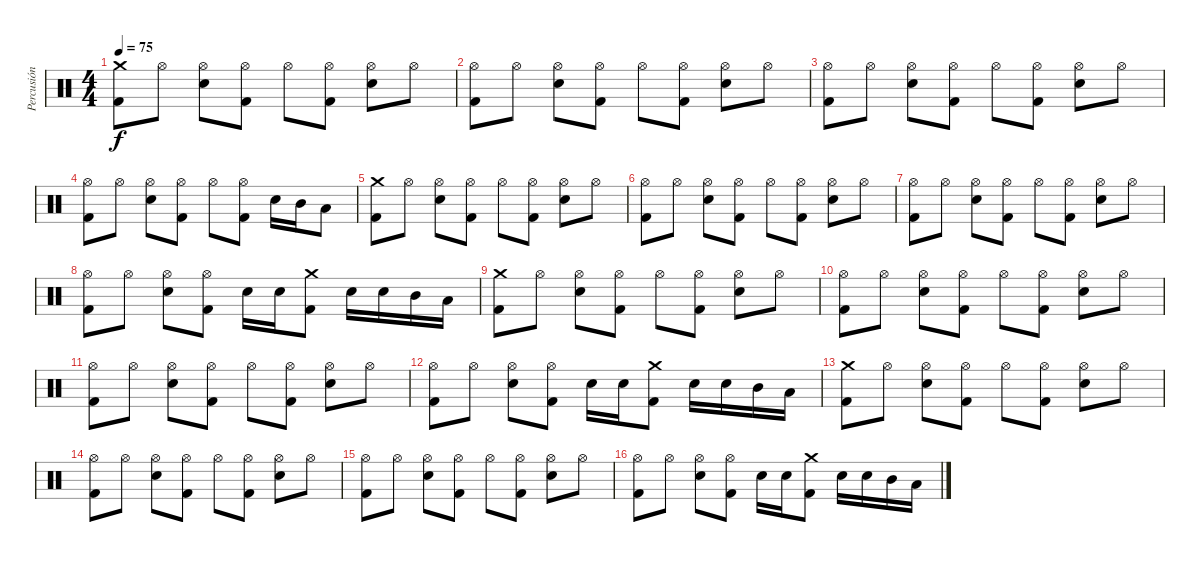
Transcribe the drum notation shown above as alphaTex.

\track ("Percusión" "Percusión") {instrument percussion}
\staff {score}
\articulation defaults
\ts (4 4)
\tempo 75
\clef neutral
\ks c
("Crash medium (hit)" "Kick (hit) 2").8{dy f} "Hi-Hat (open)".8 ("Hi-Hat (open)" "Electric Snare (hit)").8 ("Hi-Hat (open)" "Kick (hit) 2").8 "Hi-Hat (open)".8 ("Hi-Hat (open)" "Kick (hit) 2").8 ("Hi-Hat (open)" "Electric Snare (hit)").8 "Hi-Hat (open)".8 |
("Hi-Hat (open)" "Kick (hit) 2").8 "Hi-Hat (open)".8 ("Hi-Hat (open)" "Electric Snare (hit)").8 ("Hi-Hat (open)" "Kick (hit) 2").8 "Hi-Hat (open)".8 ("Hi-Hat (open)" "Kick (hit) 2").8 ("Hi-Hat (open)" "Electric Snare (hit)").8 "Hi-Hat (open)".8 |
("Hi-Hat (open)" "Kick (hit) 2").8 "Hi-Hat (open)".8 ("Hi-Hat (open)" "Electric Snare (hit)").8 ("Hi-Hat (open)" "Kick (hit) 2").8 "Hi-Hat (open)".8 ("Hi-Hat (open)" "Kick (hit) 2").8 ("Hi-Hat (open)" "Electric Snare (hit)").8 "Hi-Hat (open)".8 |
("Hi-Hat (open)" "Kick (hit) 2").8 "Hi-Hat (open)".8 ("Hi-Hat (open)" "Electric Snare (hit)").8 ("Hi-Hat (open)" "Kick (hit) 2").8 "Hi-Hat (open)".8 ("Hi-Hat (open)" "Kick (hit) 2").8 "Electric Snare (hit)".16 "Mid Tom (hit)".16 "Low Tom (hit)".8 |
("Crash medium (hit)" "Kick (hit) 2").8 "Hi-Hat (open)".8 ("Hi-Hat (open)" "Electric Snare (hit)").8 ("Hi-Hat (open)" "Kick (hit) 2").8 "Hi-Hat (open)".8 ("Hi-Hat (open)" "Kick (hit) 2").8 ("Hi-Hat (open)" "Electric Snare (hit)").8 "Hi-Hat (open)".8 |
("Hi-Hat (open)" "Kick (hit) 2").8 "Hi-Hat (open)".8 ("Hi-Hat (open)" "Electric Snare (hit)").8 ("Hi-Hat (open)" "Kick (hit) 2").8 "Hi-Hat (open)".8 ("Hi-Hat (open)" "Kick (hit) 2").8 ("Hi-Hat (open)" "Electric Snare (hit)").8 "Hi-Hat (open)".8 |
("Hi-Hat (open)" "Kick (hit) 2").8 "Hi-Hat (open)".8 ("Hi-Hat (open)" "Electric Snare (hit)").8 ("Hi-Hat (open)" "Kick (hit) 2").8 "Hi-Hat (open)".8 ("Hi-Hat (open)" "Kick (hit) 2").8 ("Hi-Hat (open)" "Electric Snare (hit)").8 "Hi-Hat (open)".8 |
("Hi-Hat (open)" "Kick (hit) 2").8 "Hi-Hat (open)".8 ("Hi-Hat (open)" "Electric Snare (hit)").8 ("Hi-Hat (open)" "Kick (hit) 2").8 "Electric Snare (hit)".16 "Electric Snare (hit)".16 ("Crash medium (hit)" "Kick (hit) 2").8 "Electric Snare (hit)".16 "Electric Snare (hit)".16 "Mid Tom (hit)".16 "Low Tom (hit)".16 |
("Crash medium (hit)" "Kick (hit) 2").8 "Hi-Hat (open)".8 ("Hi-Hat (open)" "Electric Snare (hit)").8 ("Hi-Hat (open)" "Kick (hit) 2").8 "Hi-Hat (open)".8 ("Hi-Hat (open)" "Kick (hit) 2").8 ("Hi-Hat (open)" "Electric Snare (hit)").8 "Hi-Hat (open)".8 |
("Hi-Hat (open)" "Kick (hit) 2").8 "Hi-Hat (open)".8 ("Hi-Hat (open)" "Electric Snare (hit)").8 ("Hi-Hat (open)" "Kick (hit) 2").8 "Hi-Hat (open)".8 ("Hi-Hat (open)" "Kick (hit) 2").8 ("Hi-Hat (open)" "Electric Snare (hit)").8 "Hi-Hat (open)".8 |
("Hi-Hat (open)" "Kick (hit) 2").8 "Hi-Hat (open)".8 ("Hi-Hat (open)" "Electric Snare (hit)").8 ("Hi-Hat (open)" "Kick (hit) 2").8 "Hi-Hat (open)".8 ("Hi-Hat (open)" "Kick (hit) 2").8 ("Hi-Hat (open)" "Electric Snare (hit)").8 "Hi-Hat (open)".8 |
("Hi-Hat (open)" "Kick (hit) 2").8 "Hi-Hat (open)".8 ("Hi-Hat (open)" "Electric Snare (hit)").8 ("Hi-Hat (open)" "Kick (hit) 2").8 "Electric Snare (hit)".16 "Electric Snare (hit)".16 ("Crash medium (hit)" "Kick (hit) 2").8 "Electric Snare (hit)".16 "Electric Snare (hit)".16 "Mid Tom (hit)".16 "Low Tom (hit)".16 |
("Crash medium (hit)" "Kick (hit) 2").8 "Hi-Hat (open)".8 ("Hi-Hat (open)" "Electric Snare (hit)").8 ("Hi-Hat (open)" "Kick (hit) 2").8 "Hi-Hat (open)".8 ("Hi-Hat (open)" "Kick (hit) 2").8 ("Hi-Hat (open)" "Electric Snare (hit)").8 "Hi-Hat (open)".8 |
("Hi-Hat (open)" "Kick (hit) 2").8 "Hi-Hat (open)".8 ("Hi-Hat (open)" "Electric Snare (hit)").8 ("Hi-Hat (open)" "Kick (hit) 2").8 "Hi-Hat (open)".8 ("Hi-Hat (open)" "Kick (hit) 2").8 ("Hi-Hat (open)" "Electric Snare (hit)").8 "Hi-Hat (open)".8 |
("Hi-Hat (open)" "Kick (hit) 2").8 "Hi-Hat (open)".8 ("Hi-Hat (open)" "Electric Snare (hit)").8 ("Hi-Hat (open)" "Kick (hit) 2").8 "Hi-Hat (open)".8 ("Hi-Hat (open)" "Kick (hit) 2").8 ("Hi-Hat (open)" "Electric Snare (hit)").8 "Hi-Hat (open)".8 |
("Hi-Hat (open)" "Kick (hit) 2").8 "Hi-Hat (open)".8 ("Hi-Hat (open)" "Electric Snare (hit)").8 ("Hi-Hat (open)" "Kick (hit) 2").8 "Electric Snare (hit)".16 "Electric Snare (hit)".16 ("Crash medium (hit)" "Kick (hit) 2").8 "Electric Snare (hit)".16 "Electric Snare (hit)".16 "Mid Tom (hit)".16 "Low Tom (hit)".16
